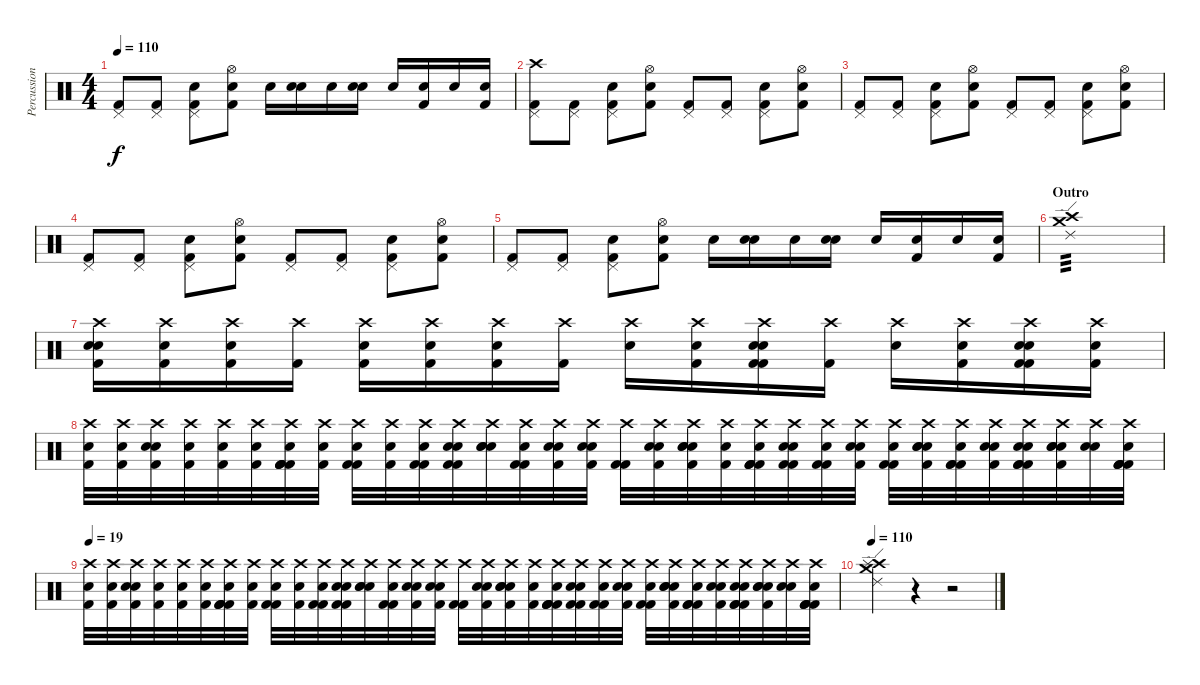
\track ("Percussion" "Percussion") {instrument percussion}
\staff {score}
\articulation defaults
\ts (4 4)
\tempo 110
\clef neutral
\ks c
("Pedal Hi-Hat (hit)" "Kick (hit) 2").8{dy f} ("Pedal Hi-Hat (hit)" "Kick (hit) 2").8 ("Pedal Hi-Hat (hit)" "Snare (hit) 2" "Kick (hit) 2").8 ("Hi-Hat (open)" "Snare (hit) 2" "Kick (hit) 2").8 "Snare (hit) 2".16 ("Electric Snare (hit)" "Snare (hit) 2").16 "Snare (hit) 2".16 ("Electric Snare (hit)" "Snare (hit) 2").16 "Snare (hit) 2".16 ("Kick (hit) 2" "Snare (hit) 2").16 "Snare (hit) 2".16 ("Kick (hit) 2" "Snare (hit) 2").16 |
("Pedal Hi-Hat (hit)" "Crash high (hit)" "Kick (hit) 2").8 ("Pedal Hi-Hat (hit)" "Kick (hit) 2").8 ("Pedal Hi-Hat (hit)" "Snare (hit) 2" "Kick (hit) 2").8 ("Hi-Hat (open)" "Snare (hit) 2" "Kick (hit) 2").8 ("Pedal Hi-Hat (hit)" "Kick (hit) 2").8 ("Pedal Hi-Hat (hit)" "Kick (hit) 2").8 ("Pedal Hi-Hat (hit)" "Snare (hit) 2" "Kick (hit) 2").8 ("Hi-Hat (open)" "Snare (hit) 2" "Kick (hit) 2").8 |
("Pedal Hi-Hat (hit)" "Kick (hit) 2").8 ("Pedal Hi-Hat (hit)" "Kick (hit) 2").8 ("Pedal Hi-Hat (hit)" "Snare (hit) 2" "Kick (hit) 2").8 ("Hi-Hat (open)" "Snare (hit) 2" "Kick (hit) 2").8 ("Pedal Hi-Hat (hit)" "Kick (hit) 2").8 ("Pedal Hi-Hat (hit)" "Kick (hit) 2").8 ("Pedal Hi-Hat (hit)" "Snare (hit) 2" "Kick (hit) 2").8 ("Hi-Hat (open)" "Snare (hit) 2" "Kick (hit) 2").8 |
("Pedal Hi-Hat (hit)" "Kick (hit) 2").8 ("Pedal Hi-Hat (hit)" "Kick (hit) 2").8 ("Pedal Hi-Hat (hit)" "Snare (hit) 2" "Kick (hit) 2").8 ("Hi-Hat (open)" "Snare (hit) 2" "Kick (hit) 2").8 ("Pedal Hi-Hat (hit)" "Kick (hit) 2").8 ("Pedal Hi-Hat (hit)" "Kick (hit) 2").8 ("Pedal Hi-Hat (hit)" "Snare (hit) 2" "Kick (hit) 2").8 ("Hi-Hat (open)" "Snare (hit) 2" "Kick (hit) 2").8 |
("Pedal Hi-Hat (hit)" "Kick (hit) 2").8 ("Pedal Hi-Hat (hit)" "Kick (hit) 2").8 ("Pedal Hi-Hat (hit)" "Snare (hit) 2" "Kick (hit) 2").8 ("Hi-Hat (open)" "Snare (hit) 2" "Kick (hit) 2").8 "Snare (hit) 2".16 ("Electric Snare (hit)" "Snare (hit) 2").16 "Snare (hit) 2".16 ("Electric Snare (hit)" "Snare (hit) 2").16 "Snare (hit) 2".16 ("Kick (hit) 2" "Snare (hit) 2").16 "Snare (hit) 2".16 ("Kick (hit) 2" "Snare (hit) 2").16 |
\section ("" "Outro")
("Crash medium (hit)" "Ride (edge) 2" "Crash high (hit)").1{tp 3} |
("Crash high (hit)" "Snare (hit) 2" "Snare (hit) 2" "Kick (hit) 2").16 ("Crash high (hit)" "Snare (hit) 2" "Kick (hit) 2").16 ("Crash high (hit)" "Snare (hit) 2" "Kick (hit) 2").16 ("Crash high (hit)" "Kick (hit) 2").16 ("Crash high (hit)" "Snare (hit) 2" "Kick (hit) 2").16 ("Crash high (hit)" "Snare (hit) 2" "Kick (hit) 2").16 ("Crash high (hit)" "Snare (hit) 2" "Kick (hit) 2").16 ("Crash high (hit)" "Kick (hit) 2").16 ("Crash high (hit)" "Snare (hit) 2").16 ("Crash high (hit)" "Snare (hit) 2" "Kick (hit) 2").16 ("Crash high (hit)" "Snare (hit) 2" "Snare (hit) 2" "Kick (hit) 2" "Kick (hit) 2").16 ("Crash high (hit)" "Kick (hit) 2").16 ("Crash high (hit)" "Snare (hit) 2").16 ("Crash high (hit)" "Snare (hit) 2" "Kick (hit) 2").16 ("Crash high (hit)" "Snare (hit) 2" "Snare (hit) 2" "Kick (hit) 2" "Kick (hit) 2").16 ("Crash high (hit)" "Snare (hit) 2" "Kick (hit) 2").16 |
("Crash high (hit)" "Snare (hit) 2" "Kick (hit) 2").32 ("Crash high (hit)" "Snare (hit) 2" "Kick (hit) 2").32 ("Crash high (hit)" "Snare (hit) 2" "Snare (hit) 2" "Kick (hit) 2").32 ("Crash high (hit)" "Snare (hit) 2" "Kick (hit) 2").32 ("Crash high (hit)" "Kick (hit) 2" "Snare (hit) 2").32 ("Crash high (hit)" "Snare (hit) 2" "Kick (hit) 2").32 ("Crash high (hit)" "Kick (hit) 2" "Kick (hit) 2" "Kick (hit) 2" "Snare (hit) 2" "Kick (hit) 2").32 ("Crash high (hit)" "Snare (hit) 2" "Kick (hit) 2").32 ("Crash high (hit)" "Kick (hit) 2" "Kick (hit) 2" "Snare (hit) 2").32 ("Crash high (hit)" "Kick (hit) 2" "Snare (hit) 2").32 ("Crash high (hit)" "Kick (hit) 2" "Kick (hit) 2" "Snare (hit) 2").32 ("Crash high (hit)" "Snare (hit) 2" "Snare (hit) 2" "Kick (hit) 2" "Kick (hit) 2").32 ("Crash high (hit)" "Snare (hit) 2" "Snare (hit) 2" "Snare (hit) 2").32 ("Crash high (hit)" "Snare (hit) 2" "Kick (hit) 2" "Kick (hit) 2").32 ("Crash high (hit)" "Snare (hit) 2" "Kick (hit) 2" "Snare (hit) 2").32 ("Crash high (hit)" "Snare (hit) 2" "Kick (hit) 2" "Snare (hit) 2").32 ("Crash high (hit)" "Kick (hit) 2" "Kick (hit) 2").32 ("Crash high (hit)" "Snare (hit) 2" "Kick (hit) 2" "Snare (hit) 2").32 ("Crash high (hit)" "Snare (hit) 2" "Kick (hit) 2" "Snare (hit) 2" "Snare (hit) 2").32 ("Crash high (hit)" "Snare (hit) 2" "Kick (hit) 2").32 ("Crash high (hit)" "Kick (hit) 2" "Snare (hit) 2" "Kick (hit) 2" "Kick (hit) 2" "Kick (hit) 2").32 ("Crash high (hit)" "Kick (hit) 2" "Snare (hit) 2" "Kick (hit) 2" "Snare (hit) 2").32 ("Crash high (hit)" "Kick (hit) 2" "Kick (hit) 2" "Snare (hit) 2").32 ("Crash high (hit)" "Snare (hit) 2" "Kick (hit) 2" "Snare (hit) 2").32 ("Crash high (hit)" "Kick (hit) 2" "Snare (hit) 2" "Kick (hit) 2").32 ("Crash high (hit)" "Kick (hit) 2" "Snare (hit) 2" "Snare (hit) 2" "Snare (hit) 2").32 ("Crash high (hit)" "Kick (hit) 2" "Kick (hit) 2" "Kick (hit) 2" "Snare (hit) 2").32 ("Crash high (hit)" "Snare (hit) 2" "Kick (hit) 2" "Snare (hit) 2").32 ("Crash high (hit)" "Snare (hit) 2" "Kick (hit) 2" "Kick (hit) 2" "Kick (hit) 2" "Snare (hit) 2").32 ("Crash high (hit)" "Snare (hit) 2" "Kick (hit) 2" "Snare (hit) 2" "Snare (hit) 2").32 ("Crash high (hit)" "Snare (hit) 2" "Snare (hit) 2").32 ("Crash high (hit)" "Snare (hit) 2" "Kick (hit) 2" "Kick (hit) 2" "Kick (hit) 2" "Kick (hit) 2").32 |
\tempo 19
("Crash high (hit)" "Snare (hit) 2" "Kick (hit) 2").32 ("Crash high (hit)" "Snare (hit) 2" "Kick (hit) 2").32 ("Crash high (hit)" "Snare (hit) 2" "Snare (hit) 2" "Kick (hit) 2").32 ("Crash high (hit)" "Snare (hit) 2" "Kick (hit) 2").32 ("Crash high (hit)" "Kick (hit) 2" "Snare (hit) 2").32 ("Crash high (hit)" "Snare (hit) 2" "Kick (hit) 2").32 ("Crash high (hit)" "Kick (hit) 2" "Kick (hit) 2" "Kick (hit) 2" "Snare (hit) 2" "Kick (hit) 2").32 ("Crash high (hit)" "Snare (hit) 2" "Kick (hit) 2").32 ("Crash high (hit)" "Kick (hit) 2" "Kick (hit) 2" "Snare (hit) 2").32 ("Crash high (hit)" "Kick (hit) 2" "Snare (hit) 2").32 ("Crash high (hit)" "Kick (hit) 2" "Kick (hit) 2" "Snare (hit) 2").32 ("Crash high (hit)" "Snare (hit) 2" "Snare (hit) 2" "Kick (hit) 2" "Kick (hit) 2").32 ("Crash high (hit)" "Snare (hit) 2" "Snare (hit) 2" "Snare (hit) 2").32 ("Crash high (hit)" "Snare (hit) 2" "Kick (hit) 2" "Kick (hit) 2").32 ("Crash high (hit)" "Snare (hit) 2" "Kick (hit) 2" "Snare (hit) 2").32 ("Crash high (hit)" "Snare (hit) 2" "Kick (hit) 2" "Snare (hit) 2").32 ("Crash high (hit)" "Kick (hit) 2" "Kick (hit) 2").32 ("Crash high (hit)" "Snare (hit) 2" "Kick (hit) 2" "Snare (hit) 2").32 ("Crash high (hit)" "Snare (hit) 2" "Kick (hit) 2" "Snare (hit) 2" "Snare (hit) 2").32 ("Crash high (hit)" "Snare (hit) 2" "Kick (hit) 2").32 ("Crash high (hit)" "Kick (hit) 2" "Snare (hit) 2" "Kick (hit) 2" "Kick (hit) 2" "Kick (hit) 2").32 ("Crash high (hit)" "Kick (hit) 2" "Snare (hit) 2" "Kick (hit) 2" "Snare (hit) 2").32 ("Crash high (hit)" "Kick (hit) 2" "Kick (hit) 2" "Snare (hit) 2").32 ("Crash high (hit)" "Snare (hit) 2" "Kick (hit) 2" "Snare (hit) 2").32 ("Crash high (hit)" "Kick (hit) 2" "Snare (hit) 2" "Kick (hit) 2").32 ("Crash high (hit)" "Kick (hit) 2" "Snare (hit) 2" "Snare (hit) 2" "Snare (hit) 2").32 ("Crash high (hit)" "Kick (hit) 2" "Kick (hit) 2" "Kick (hit) 2" "Snare (hit) 2").32 ("Crash high (hit)" "Snare (hit) 2" "Kick (hit) 2" "Snare (hit) 2").32 ("Crash high (hit)" "Snare (hit) 2" "Kick (hit) 2" "Kick (hit) 2" "Kick (hit) 2" "Snare (hit) 2").32 ("Crash high (hit)" "Snare (hit) 2" "Kick (hit) 2" "Snare (hit) 2" "Snare (hit) 2").32 ("Crash high (hit)" "Snare (hit) 2" "Snare (hit) 2").32 ("Crash high (hit)" "Snare (hit) 2" "Kick (hit) 2" "Kick (hit) 2" "Kick (hit) 2" "Kick (hit) 2").32 |
\tempo 110
("Crash high (hit)" "Crash medium (hit)" "Ride (edge) 2" "Splash (hit)").4 r.4 r.2
